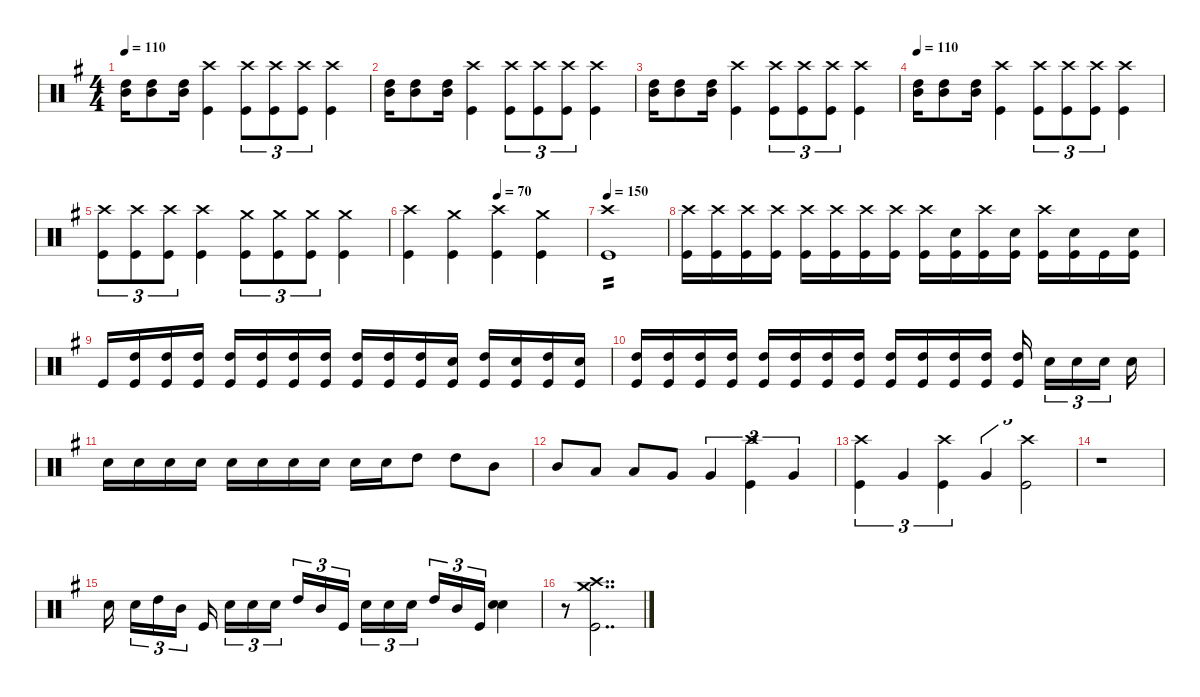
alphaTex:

\defaultSystemsLayout 4
\hideDynamics
\bracketExtendMode nobrackets
\track ("Drums" " ") {instrument percussion}
\staff
\articulation defaults
\ts (4 4)
\tempo 110
\clef neutral
\ks eminor
("High Tom (hit)"{acc forcenatural} "Mid Tom (hit)"{acc forcenatural}).16{dy ff} ("High Tom (hit)"{acc forcenatural} "Mid Tom (hit)"{acc forcenatural}).8 ("High Tom (hit)"{acc forcenatural} "Mid Tom (hit)"{acc forcenatural}).16 ("Kick (hit)"{acc forcenatural} "Crash high (hit)"{acc forcenatural}).4{dy f} ("Kick (hit)"{acc forcenatural} "Crash high (hit)"{acc forcenatural}).8{tu (3 2)} ("Kick (hit)"{acc forcenatural} "Crash high (hit)"{acc forcenatural}).8{tu (3 2)} ("Kick (hit)"{acc forcenatural} "Crash high (hit)"{acc forcenatural}).8{tu (3 2)} ("Kick (hit)"{acc forcenatural} "Crash high (hit)"{acc forcenatural}).4 |
("High Tom (hit)"{acc forcenatural} "Mid Tom (hit)"{acc forcenatural}).16{dy ff} ("High Tom (hit)"{acc forcenatural} "Mid Tom (hit)"{acc forcenatural}).8 ("High Tom (hit)"{acc forcenatural} "Mid Tom (hit)"{acc forcenatural}).16 ("Kick (hit)"{acc forcenatural} "Crash high (hit)"{acc forcenatural}).4{dy f} ("Kick (hit)"{acc forcenatural} "Crash high (hit)"{acc forcenatural}).8{tu (3 2)} ("Kick (hit)"{acc forcenatural} "Crash high (hit)"{acc forcenatural}).8{tu (3 2)} ("Kick (hit)"{acc forcenatural} "Crash high (hit)"{acc forcenatural}).8{tu (3 2)} ("Kick (hit)"{acc forcenatural} "Crash high (hit)"{acc forcenatural}).4 |
("High Tom (hit)"{acc forcenatural} "Mid Tom (hit)"{acc forcenatural}).16{dy ff} ("High Tom (hit)"{acc forcenatural} "Mid Tom (hit)"{acc forcenatural}).8 ("High Tom (hit)"{acc forcenatural} "Mid Tom (hit)"{acc forcenatural}).16 ("Kick (hit)"{acc forcenatural} "Crash high (hit)"{acc forcenatural}).4{dy f} ("Kick (hit)"{acc forcenatural} "Crash high (hit)"{acc forcenatural}).8{tu (3 2)} ("Kick (hit)"{acc forcenatural} "Crash high (hit)"{acc forcenatural}).8{tu (3 2)} ("Kick (hit)"{acc forcenatural} "Crash high (hit)"{acc forcenatural}).8{tu (3 2)} ("Kick (hit)"{acc forcenatural} "Crash high (hit)"{acc forcenatural}).4 |
\tempo 110
("High Tom (hit)"{acc forcenatural} "Mid Tom (hit)"{acc forcenatural}).16{dy ff} ("High Tom (hit)"{acc forcenatural} "Mid Tom (hit)"{acc forcenatural}).8 ("High Tom (hit)"{acc forcenatural} "Mid Tom (hit)"{acc forcenatural}).16 ("Kick (hit)"{acc forcenatural} "Crash high (hit)"{acc forcenatural}).4{dy f} ("Kick (hit)"{acc forcenatural} "Crash high (hit)"{acc forcenatural}).8{tu (3 2)} ("Kick (hit)"{acc forcenatural} "Crash high (hit)"{acc forcenatural}).8{tu (3 2)} ("Kick (hit)"{acc forcenatural} "Crash high (hit)"{acc forcenatural}).8{tu (3 2)} ("Kick (hit)"{acc forcenatural} "Crash high (hit)"{acc forcenatural}).4 |
("Kick (hit)"{acc forcenatural} "Crash high (hit)"{acc forcenatural}).8{tu (3 2)} ("Kick (hit)"{acc forcenatural} "Crash high (hit)"{acc forcenatural}).8{tu (3 2)} ("Kick (hit)"{acc forcenatural} "Crash high (hit)"{acc forcenatural}).8{tu (3 2)} ("Kick (hit)"{acc forcenatural} "Crash high (hit)"{acc forcenatural}).4 ("Kick (hit)"{acc forcenatural} "Crash medium (hit)"{acc forcenatural}).8{tu (3 2)} ("Kick (hit)"{acc forcenatural} "Crash medium (hit)"{acc forcenatural}).8{tu (3 2)} ("Kick (hit)"{acc forcenatural} "Crash medium (hit)"{acc forcenatural}).8{tu (3 2)} ("Kick (hit)"{acc forcenatural} "Crash medium (hit)"{acc forcenatural}).4 |
\tempo (70 0.5)
("Kick (hit)"{acc forcenatural} "Crash high (hit)"{acc forcenatural}).4 ("Kick (hit)"{acc forcenatural} "Crash medium (hit)"{acc forcenatural}).4 ("Kick (hit)"{acc forcenatural} "Crash high (hit)"{acc forcenatural}).4 ("Kick (hit)"{acc forcenatural} "Crash medium (hit)"{acc forcenatural}).4 |
\tempo 150
("Kick (hit)"{acc forcenatural} "Crash high (hit)"{acc forcenatural}).1{tp 2} |
("Kick (hit)"{acc forcenatural} "Crash high (hit)"{acc forcenatural}).16 ("Kick (hit)"{acc forcenatural} "Crash high (hit)"{acc forcenatural}).16 ("Kick (hit)"{acc forcenatural} "Crash high (hit)"{acc forcenatural}).16 ("Kick (hit)"{acc forcenatural} "Crash high (hit)"{acc forcenatural}).16 ("Kick (hit)"{acc forcenatural} "Crash high (hit)"{acc forcenatural}).16 ("Kick (hit)"{acc forcenatural} "Crash high (hit)"{acc forcenatural}).16 ("Kick (hit)"{acc forcenatural} "Crash high (hit)"{acc forcenatural}).16 ("Kick (hit)"{acc forcenatural} "Crash high (hit)"{acc forcenatural}).16 ("Kick (hit)"{acc forcenatural} "Crash high (hit)"{acc forcenatural}).16 ("Kick (hit)"{acc forcenatural} "Snare (hit) 2"{acc forcenatural}).16 ("Kick (hit)"{acc forcenatural} "Crash high (hit)"{acc forcenatural}).16 ("Kick (hit)"{acc forcenatural} "Snare (hit) 2"{acc forcenatural}).16 ("Kick (hit)"{acc forcenatural} "Crash high (hit)"{acc forcenatural}).16 ("Kick (hit)"{acc forcenatural} "Snare (hit) 2"{acc forcenatural}).16 "Kick (hit)"{acc forcenatural}.16 ("Kick (hit)"{acc forcenatural} "Snare (hit) 2"{acc forcenatural}).16 |
"Kick (hit)"{acc forcenatural}.16 ("Kick (hit)"{acc forcenatural} "High Tom (hit)"{acc forcenatural}).16{dy ff} ("Kick (hit)"{acc forcenatural} "High Tom (hit)"{acc forcenatural}).16 ("Kick (hit)"{acc forcenatural} "High Tom (hit)"{acc forcenatural}).16 ("Kick (hit)"{acc forcenatural} "High Tom (hit)"{acc forcenatural}).16 ("Kick (hit)"{acc forcenatural} "High Tom (hit)"{acc forcenatural}).16 ("Kick (hit)"{acc forcenatural} "High Tom (hit)"{acc forcenatural}).16 ("Kick (hit)"{acc forcenatural} "High Tom (hit)"{acc forcenatural}).16 ("Kick (hit)"{acc forcenatural} "High Tom (hit)"{acc forcenatural}).16 ("Kick (hit)"{acc forcenatural} "High Tom (hit)"{acc forcenatural}).16 ("Kick (hit)"{acc forcenatural} "High Tom (hit)"{acc forcenatural}).16 ("Kick (hit)"{acc forcenatural} "Snare (hit) 2"{acc forcenatural}).16{dy f} ("Kick (hit)"{acc forcenatural} "High Tom (hit)"{acc forcenatural}).16 ("Kick (hit)"{acc forcenatural} "Snare (hit) 2"{acc forcenatural}).16 ("Kick (hit)"{acc forcenatural} "High Tom (hit)"{acc forcenatural}).16 ("Kick (hit)"{acc forcenatural} "Snare (hit) 2"{acc forcenatural}).16 |
("Kick (hit)"{acc forcenatural} "High Tom (hit)"{acc forcenatural}).16{dy ff} ("Kick (hit)"{acc forcenatural} "High Tom (hit)"{acc forcenatural}).16 ("Kick (hit)"{acc forcenatural} "High Tom (hit)"{acc forcenatural}).16 ("Kick (hit)"{acc forcenatural} "High Tom (hit)"{acc forcenatural}).16 ("Kick (hit)"{acc forcenatural} "High Tom (hit)"{acc forcenatural}).16 ("Kick (hit)"{acc forcenatural} "High Tom (hit)"{acc forcenatural}).16 ("Kick (hit)"{acc forcenatural} "High Tom (hit)"{acc forcenatural}).16 ("Kick (hit)"{acc forcenatural} "High Tom (hit)"{acc forcenatural}).16 ("Kick (hit)"{acc forcenatural} "High Tom (hit)"{acc forcenatural}).16 ("Kick (hit)"{acc forcenatural} "High Tom (hit)"{acc forcenatural}).16 ("Kick (hit)"{acc forcenatural} "High Tom (hit)"{acc forcenatural}).16 ("Kick (hit)"{acc forcenatural} "High Tom (hit)"{acc forcenatural}).16 ("Kick (hit)"{acc forcenatural} "High Tom (hit)"{acc forcenatural}).16 "Snare (hit) 2"{acc forcenatural}.16{tu (3 2) dy f} "Snare (hit) 2"{acc forcenatural}.16{tu (3 2)} "Snare (hit) 2"{acc forcenatural}.16{tu (3 2)} "Snare (hit) 2"{acc forcenatural}.16 |
"Snare (hit) 2"{acc forcenatural}.16 "Snare (hit) 2"{acc forcenatural}.16 "Snare (hit) 2"{acc forcenatural}.16 "Snare (hit) 2"{acc forcenatural}.16 "Snare (hit) 2"{acc forcenatural}.16 "Snare (hit) 2"{acc forcenatural}.16 "Snare (hit) 2"{acc forcenatural}.16 "Snare (hit) 2"{acc forcenatural}.16 "Snare (hit) 2"{acc forcenatural}.16 "Snare (hit) 2"{acc forcenatural}.16 "High Tom (hit)"{acc forcenatural}.8{dy fff} "High Tom (hit)"{acc forcenatural}.8 "Mid Tom (hit)"{acc forcenatural}.8 |
"Mid Tom (hit)"{acc forcenatural}.8 "Low Tom (hit)"{acc forcenatural}.8 "Low Tom (hit)"{acc forcenatural}.8 "Very Low Tom (hit)"{acc forcenatural}.8 "Very Low Tom (hit)"{acc forcenatural}.4{tu (3 2)} ("Crash high (hit)"{acc forcenatural} "Kick (hit)"{acc forcenatural}).4{tu (3 2) dy f} "Very Low Tom (hit)"{acc forcenatural}.4{tu (3 2) dy fff} |
("Crash high (hit)"{acc forcenatural} "Kick (hit)"{acc forcenatural}).4{tu (3 2) dy f} "Very Low Tom (hit)"{acc forcenatural}.4{tu (3 2) dy fff} ("Crash high (hit)"{acc forcenatural} "Kick (hit)"{acc forcenatural}).4{tu (3 2) dy f} "Very Low Tom (hit)"{acc forcenatural}.4{tu (3 2) dy fff} ("Crash high (hit)"{acc forcenatural} "Kick (hit)"{acc forcenatural}).2{tu (3 2) dy f} |
r.1 |
"Snare (hit) 2"{acc forcenatural}.16{dy mf} "Snare (hit) 2"{acc forcenatural}.16{tu (3 2)} "High Tom (hit)"{acc forcenatural}.16{tu (3 2) dy ff} "Mid Tom (hit)"{acc forcenatural}.16{tu (3 2)} "Kick (hit)"{acc forcenatural}.16{dy mf} "Snare (hit) 2"{acc forcenatural}.16{tu (3 2)} "Snare (hit) 2"{acc forcenatural}.16{tu (3 2)} "Snare (hit) 2"{acc forcenatural}.16{tu (3 2)} "High Tom (hit)"{acc forcenatural}.16{tu (3 2) dy ff} "Mid Tom (hit)"{acc forcenatural}.16{tu (3 2)} "Kick (hit)"{acc forcenatural}.16{tu (3 2) dy mf} "Snare (hit) 2"{acc forcenatural}.16{tu (3 2)} "Snare (hit) 2"{acc forcenatural}.16{tu (3 2)} "Snare (hit) 2"{acc forcenatural}.16{tu (3 2)} "High Tom (hit)"{acc forcenatural}.16{tu (3 2) dy ff} "Mid Tom (hit)"{acc forcenatural}.16{tu (3 2)} "Kick (hit)"{acc forcenatural}.16{tu (3 2) dy mf} ("Snare (hit) 2"{acc forcenatural} "Snare (hit) 2"{acc forcenatural}).4 |
r.8 ("Crash high (hit)"{acc forcenatural} "Kick (hit)"{acc forcenatural} "Crash medium (hit)"{acc forcenatural}).2{dd}
